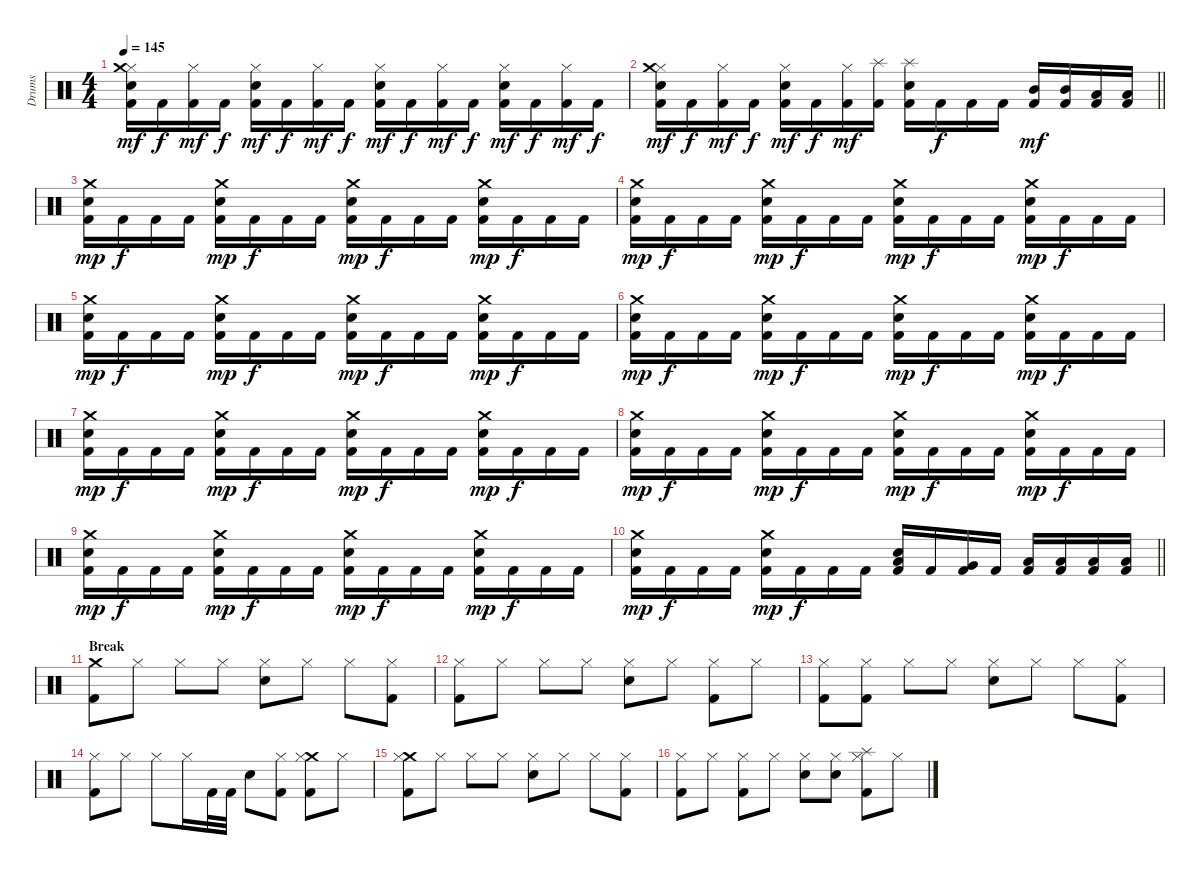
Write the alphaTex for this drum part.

\track ("Drums" "Drums") {instrument percussion}
\staff {score}
\articulation defaults
\ts (4 4)
\tempo 145
\clef neutral
\ks c
("Hi-Hat (closed)" "Crash medium (hit)" "Snare (hit) 2" "Kick (hit) 2").16{dy mf} "Kick (hit) 2".16{dy f} ("Hi-Hat (closed)" "Kick (hit) 2").16{dy mf} "Kick (hit) 2".16{dy f} ("Hi-Hat (closed)" "Snare (hit) 2" "Kick (hit) 2").16{dy mf} "Kick (hit) 2".16{dy f} ("Hi-Hat (closed)" "Kick (hit) 2").16{dy mf} "Kick (hit) 2".16{dy f} ("Hi-Hat (closed)" "Snare (hit) 2" "Kick (hit) 2").16{dy mf} "Kick (hit) 2".16{dy f} ("Hi-Hat (closed)" "Kick (hit) 2").16{dy mf} "Kick (hit) 2".16{dy f} ("Hi-Hat (closed)" "Snare (hit) 2" "Kick (hit) 2").16{dy mf} "Kick (hit) 2".16{dy f} ("Hi-Hat (closed)" "Kick (hit) 2").16{dy mf} "Kick (hit) 2".16{dy f} |
\barLineRight lightlight
("Hi-Hat (closed)" "Crash medium (hit)" "Snare (hit) 2" "Kick (hit) 2").16{dy mf} "Kick (hit) 2".16{dy f} ("Hi-Hat (closed)" "Kick (hit) 2").16{dy mf} "Kick (hit) 2".16{dy f} ("Hi-Hat (closed)" "Snare (hit) 2" "Kick (hit) 2").16{dy mf} "Kick (hit) 2".16{dy f} ("Hi-Hat (closed)" "Kick (hit) 2").16{dy mf} ("Splash (hit)" "Kick (hit) 2").16 ("Splash (hit)" "Snare (hit) 2" "Kick (hit) 2").16 "Kick (hit) 2".16{dy f} "Kick (hit) 2".16 "Kick (hit) 2".16 ("Mid Tom (hit)" "Kick (hit) 2").16{dy mf} ("Mid Tom (hit)" "Kick (hit) 2").16 ("Low Tom (hit)" "Kick (hit) 2").16 ("Low Floor Tom (hit)" "Kick (hit) 2").16 |
("Crash medium (hit)" "Snare (hit) 2" "Kick (hit) 2").16{dy mp} "Kick (hit) 2".16{dy f} "Kick (hit) 2".16 "Kick (hit) 2".16 ("Crash medium (hit)" "Snare (hit) 2" "Kick (hit) 2").16{dy mp} "Kick (hit) 2".16{dy f} "Kick (hit) 2".16 "Kick (hit) 2".16 ("Crash medium (hit)" "Snare (hit) 2" "Kick (hit) 2").16{dy mp} "Kick (hit) 2".16{dy f} "Kick (hit) 2".16 "Kick (hit) 2".16 ("Crash medium (hit)" "Snare (hit) 2" "Kick (hit) 2").16{dy mp} "Kick (hit) 2".16{dy f} "Kick (hit) 2".16 "Kick (hit) 2".16 |
("Crash medium (hit)" "Snare (hit) 2" "Kick (hit) 2").16{dy mp} "Kick (hit) 2".16{dy f} "Kick (hit) 2".16 "Kick (hit) 2".16 ("Crash medium (hit)" "Snare (hit) 2" "Kick (hit) 2").16{dy mp} "Kick (hit) 2".16{dy f} "Kick (hit) 2".16 "Kick (hit) 2".16 ("Crash medium (hit)" "Snare (hit) 2" "Kick (hit) 2").16{dy mp} "Kick (hit) 2".16{dy f} "Kick (hit) 2".16 "Kick (hit) 2".16 ("Crash medium (hit)" "Snare (hit) 2" "Kick (hit) 2").16{dy mp} "Kick (hit) 2".16{dy f} "Kick (hit) 2".16 "Kick (hit) 2".16 |
("Crash medium (hit)" "Snare (hit) 2" "Kick (hit) 2").16{dy mp} "Kick (hit) 2".16{dy f} "Kick (hit) 2".16 "Kick (hit) 2".16 ("Crash medium (hit)" "Snare (hit) 2" "Kick (hit) 2").16{dy mp} "Kick (hit) 2".16{dy f} "Kick (hit) 2".16 "Kick (hit) 2".16 ("Crash medium (hit)" "Snare (hit) 2" "Kick (hit) 2").16{dy mp} "Kick (hit) 2".16{dy f} "Kick (hit) 2".16 "Kick (hit) 2".16 ("Crash medium (hit)" "Snare (hit) 2" "Kick (hit) 2").16{dy mp} "Kick (hit) 2".16{dy f} "Kick (hit) 2".16 "Kick (hit) 2".16 |
("Crash medium (hit)" "Snare (hit) 2" "Kick (hit) 2").16{dy mp} "Kick (hit) 2".16{dy f} "Kick (hit) 2".16 "Kick (hit) 2".16 ("Crash medium (hit)" "Snare (hit) 2" "Kick (hit) 2").16{dy mp} "Kick (hit) 2".16{dy f} "Kick (hit) 2".16 "Kick (hit) 2".16 ("Crash medium (hit)" "Snare (hit) 2" "Kick (hit) 2").16{dy mp} "Kick (hit) 2".16{dy f} "Kick (hit) 2".16 "Kick (hit) 2".16 ("Crash medium (hit)" "Snare (hit) 2" "Kick (hit) 2").16{dy mp} "Kick (hit) 2".16{dy f} "Kick (hit) 2".16 "Kick (hit) 2".16 |
("Crash medium (hit)" "Snare (hit) 2" "Kick (hit) 2").16{dy mp} "Kick (hit) 2".16{dy f} "Kick (hit) 2".16 "Kick (hit) 2".16 ("Crash medium (hit)" "Snare (hit) 2" "Kick (hit) 2").16{dy mp} "Kick (hit) 2".16{dy f} "Kick (hit) 2".16 "Kick (hit) 2".16 ("Crash medium (hit)" "Snare (hit) 2" "Kick (hit) 2").16{dy mp} "Kick (hit) 2".16{dy f} "Kick (hit) 2".16 "Kick (hit) 2".16 ("Crash medium (hit)" "Snare (hit) 2" "Kick (hit) 2").16{dy mp} "Kick (hit) 2".16{dy f} "Kick (hit) 2".16 "Kick (hit) 2".16 |
("Crash medium (hit)" "Snare (hit) 2" "Kick (hit) 2").16{dy mp} "Kick (hit) 2".16{dy f} "Kick (hit) 2".16 "Kick (hit) 2".16 ("Crash medium (hit)" "Snare (hit) 2" "Kick (hit) 2").16{dy mp} "Kick (hit) 2".16{dy f} "Kick (hit) 2".16 "Kick (hit) 2".16 ("Crash medium (hit)" "Snare (hit) 2" "Kick (hit) 2").16{dy mp} "Kick (hit) 2".16{dy f} "Kick (hit) 2".16 "Kick (hit) 2".16 ("Crash medium (hit)" "Snare (hit) 2" "Kick (hit) 2").16{dy mp} "Kick (hit) 2".16{dy f} "Kick (hit) 2".16 "Kick (hit) 2".16 |
("Crash medium (hit)" "Snare (hit) 2" "Kick (hit) 2").16{dy mp} "Kick (hit) 2".16{dy f} "Kick (hit) 2".16 "Kick (hit) 2".16 ("Crash medium (hit)" "Snare (hit) 2" "Kick (hit) 2").16{dy mp} "Kick (hit) 2".16{dy f} "Kick (hit) 2".16 "Kick (hit) 2".16 ("Crash medium (hit)" "Snare (hit) 2" "Kick (hit) 2").16{dy mp} "Kick (hit) 2".16{dy f} "Kick (hit) 2".16 "Kick (hit) 2".16 ("Crash medium (hit)" "Snare (hit) 2" "Kick (hit) 2").16{dy mp} "Kick (hit) 2".16{dy f} "Kick (hit) 2".16 "Kick (hit) 2".16 |
\barLineRight lightlight
("Crash medium (hit)" "Snare (hit) 2" "Kick (hit) 2").16{dy mp} "Kick (hit) 2".16{dy f} "Kick (hit) 2".16 "Kick (hit) 2".16 ("Crash medium (hit)" "Snare (hit) 2" "Kick (hit) 2").16{dy mp} "Kick (hit) 2".16{dy f} "Kick (hit) 2".16 "Kick (hit) 2".16 ("Low Tom (hit)" "Snare (hit) 2" "Kick (hit) 2").16 "Kick (hit) 2".16 ("Very Low Tom (hit)" "Kick (hit) 2").16 "Kick (hit) 2".16 ("Low Floor Tom (hit)" "Kick (hit) 2").16 ("Low Floor Tom (hit)" "Kick (hit) 2").16 ("Low Floor Tom (hit)" "Kick (hit) 2").16 ("Low Floor Tom (hit)" "Kick (hit) 2").16 |
\section ("" "Break")
("Crash medium (hit)" "Kick (hit) 2").8 "Hi-Hat (closed)".8 "Hi-Hat (closed)".8 "Hi-Hat (closed)".8 ("Hi-Hat (closed)" "Snare (hit) 2").8 "Hi-Hat (closed)".8 "Hi-Hat (closed)".8 ("Hi-Hat (closed)" "Kick (hit) 2").8 |
("Hi-Hat (closed)" "Kick (hit) 2").8 "Hi-Hat (closed)".8 "Hi-Hat (closed)".8 "Hi-Hat (closed)".8 ("Hi-Hat (closed)" "Snare (hit) 2").8 "Hi-Hat (closed)".8 ("Hi-Hat (closed)" "Kick (hit) 2").8 "Hi-Hat (closed)".8 |
("Hi-Hat (closed)" "Kick (hit) 2").8 ("Hi-Hat (closed)" "Kick (hit) 2").8 "Hi-Hat (closed)".8 "Hi-Hat (closed)".8 ("Hi-Hat (closed)" "Snare (hit) 2").8 "Hi-Hat (closed)".8 "Hi-Hat (closed)".8 ("Hi-Hat (closed)" "Kick (hit) 2").8 |
("Hi-Hat (closed)" "Kick (hit) 2").8 "Hi-Hat (closed)".8 "Hi-Hat (closed)".8 "Hi-Hat (closed)".16 "Kick (hit) 2".32 "Kick (hit) 2".32 "Snare (hit) 2".8 ("Hi-Hat (closed)" "Kick (hit) 2").8 ("Crash medium (hit)" "Hi-Hat (closed)" "Kick (hit) 2").8 "Hi-Hat (closed)".8 |
("Crash medium (hit)" "Hi-Hat (closed)" "Kick (hit) 2").8 "Hi-Hat (closed)".8 "Hi-Hat (closed)".8 "Hi-Hat (closed)".8 ("Hi-Hat (closed)" "Snare (hit) 2").8 "Hi-Hat (closed)".8 "Hi-Hat (closed)".8 ("Hi-Hat (closed)" "Kick (hit) 2").8 |
("Hi-Hat (closed)" "Kick (hit) 2").8 "Hi-Hat (closed)".8 ("Hi-Hat (closed)" "Kick (hit) 2").8 "Hi-Hat (closed)".8 ("Hi-Hat (closed)" "Snare (hit) 2").8 ("Hi-Hat (closed)" "Snare (hit) 2").8 ("Splash (hit)" "Hi-Hat (closed)" "Kick (hit) 2").8 "Hi-Hat (closed)".8
